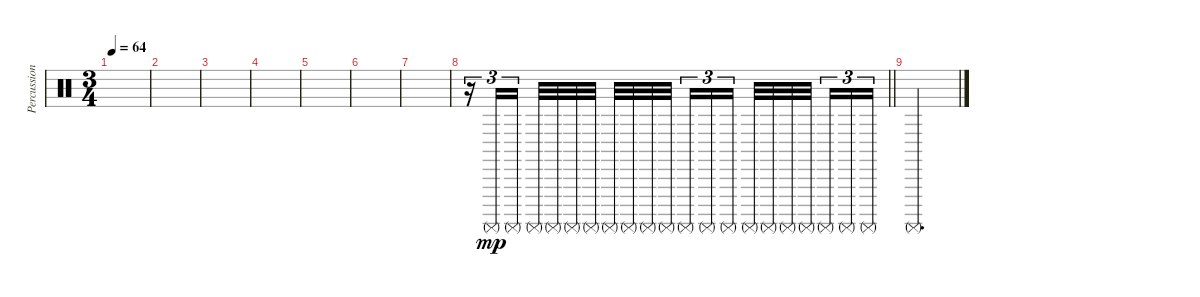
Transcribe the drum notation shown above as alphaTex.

\track ("Percussion" "Percussion") {instrument percussion}
\staff {score}
\articulation defaults
\ts (3 4)
\tempo 64
\clef neutral
\ks c
|
|
|
|
|
|
|
\barLineRight lightlight
r.16{tu (3 2) volume 13} "Surdo (mute)".16{tu (3 2) dy mp} "Surdo (mute)".16{tu (3 2) beam splitsecondary} "Surdo (mute)".32 "Surdo (mute)".32 "Surdo (mute)".32 "Surdo (mute)".32 "Surdo (mute)".32 "Surdo (mute)".32 "Surdo (mute)".32 "Surdo (mute)".32{beam splitsecondary} "Surdo (mute)".16{tu (3 2)} "Surdo (mute)".16{tu (3 2)} "Surdo (mute)".16{tu (3 2)} "Surdo (mute)".32 "Surdo (mute)".32 "Surdo (mute)".32 "Surdo (mute)".32{beam splitsecondary} "Surdo (mute)".16{tu (3 2)} "Surdo (mute)".16{tu (3 2)} "Surdo (mute)".16{tu (3 2)} |
"Surdo (mute)".2{d}
